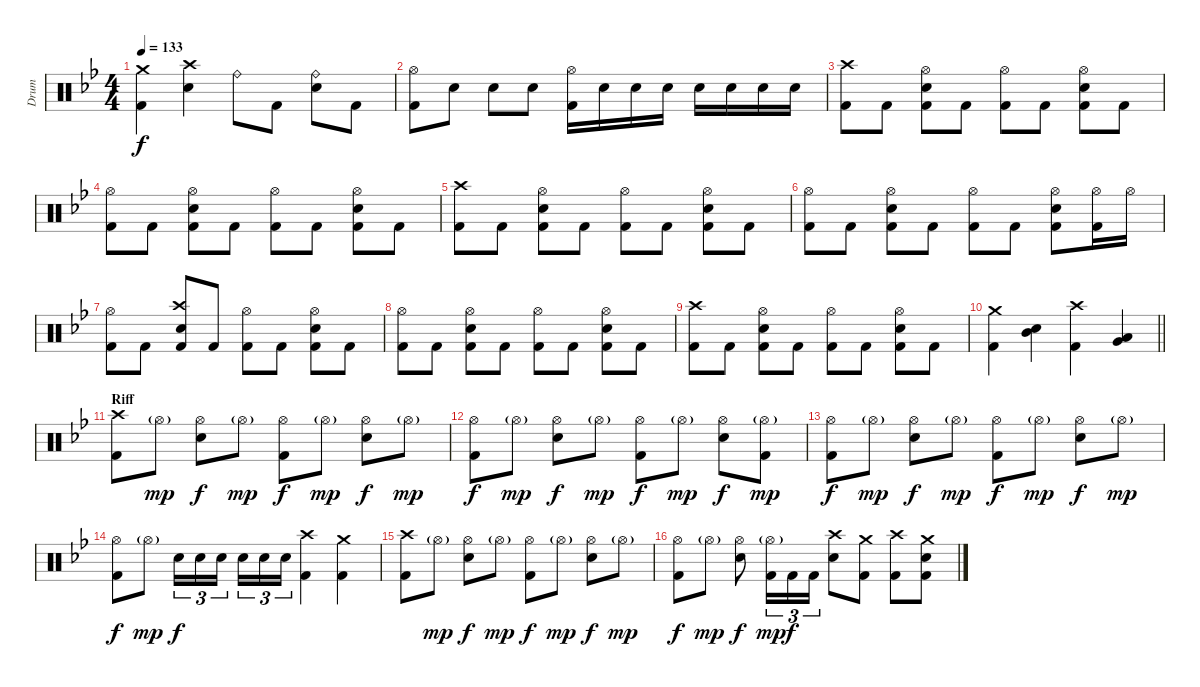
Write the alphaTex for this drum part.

\track ("Drum" "Drum") {instrument percussion}
\staff {score}
\articulation defaults
\ts (4 4)
\tempo 133
\clef neutral
\ks bb
("Crash medium (hit)" "Kick (hit) 2").4{dy f} ("Crash high (hit)" "Snare (hit) 2").4 "Ride (bell)".8 "Kick (hit) 2".8 ("Ride (bell)" "Snare (hit) 2").8 "Kick (hit) 2".8 |
("Hi-Hat (open)" "Kick (hit) 2").8 "Snare (hit) 2".8 "Snare (hit) 2".8 "Snare (hit) 2".8 ("Hi-Hat (open)" "Kick (hit) 2").16 "Snare (hit) 2".16 "Snare (hit) 2".16 "Snare (hit) 2".16 "Snare (hit) 2".16 "Snare (hit) 2".16 "Snare (hit) 2".16 "Snare (hit) 2".16 |
("Crash high (hit)" "Kick (hit) 2").8 "Kick (hit) 2".8 ("Hi-Hat (open)" "Snare (hit) 2" "Kick (hit) 2").8 "Kick (hit) 2".8 ("Hi-Hat (open)" "Kick (hit) 2").8 "Kick (hit) 2".8 ("Hi-Hat (open)" "Snare (hit) 2" "Kick (hit) 2").8 "Kick (hit) 2".8 |
("Hi-Hat (open)" "Kick (hit) 2").8 "Kick (hit) 2".8 ("Hi-Hat (open)" "Snare (hit) 2" "Kick (hit) 2").8 "Kick (hit) 2".8 ("Hi-Hat (open)" "Kick (hit) 2").8 "Kick (hit) 2".8 ("Hi-Hat (open)" "Snare (hit) 2" "Kick (hit) 2").8 "Kick (hit) 2".8 |
("Crash high (hit)" "Kick (hit) 2").8 "Kick (hit) 2".8 ("Hi-Hat (open)" "Snare (hit) 2" "Kick (hit) 2").8 "Kick (hit) 2".8 ("Hi-Hat (open)" "Kick (hit) 2").8 "Kick (hit) 2".8 ("Hi-Hat (open)" "Snare (hit) 2" "Kick (hit) 2").8 "Kick (hit) 2".8 |
("Hi-Hat (open)" "Kick (hit) 2").8 "Kick (hit) 2".8 ("Hi-Hat (open)" "Snare (hit) 2" "Kick (hit) 2").8 "Kick (hit) 2".8 ("Hi-Hat (open)" "Kick (hit) 2").8 "Kick (hit) 2".8 ("Hi-Hat (open)" "Snare (hit) 2" "Kick (hit) 2").8 ("Hi-Hat (open)" "Kick (hit) 2").16 "Hi-Hat (open)".16 |
("Hi-Hat (open)" "Kick (hit) 2").8 "Kick (hit) 2".8 ("Crash high (hit)" "Snare (hit) 2" "Kick (hit) 2").8 "Kick (hit) 2".8 ("Hi-Hat (open)" "Kick (hit) 2").8 "Kick (hit) 2".8 ("Hi-Hat (open)" "Snare (hit) 2" "Kick (hit) 2").8 "Kick (hit) 2".8 |
("Hi-Hat (open)" "Kick (hit) 2").8 "Kick (hit) 2".8 ("Hi-Hat (open)" "Snare (hit) 2" "Kick (hit) 2").8 "Kick (hit) 2".8 ("Hi-Hat (open)" "Kick (hit) 2").8 "Kick (hit) 2".8 ("Hi-Hat (open)" "Snare (hit) 2" "Kick (hit) 2").8 "Kick (hit) 2".8 |
("Crash high (hit)" "Kick (hit) 2").8 "Kick (hit) 2".8 ("Hi-Hat (open)" "Snare (hit) 2" "Kick (hit) 2").8 "Kick (hit) 2".8 ("Hi-Hat (open)" "Kick (hit) 2").8 "Kick (hit) 2".8 ("Hi-Hat (open)" "Snare (hit) 2" "Kick (hit) 2").8 "Kick (hit) 2".8 |
\barLineRight lightlight
("Crash medium (hit)" "Kick (hit) 2").4 ("Mid Tom (hit)" "Snare (hit)").4 ("Crash high (hit)" "Kick (hit) 2").4 ("Low Tom (hit)" "Very Low Tom (hit)").4 |
\section ("" "Riff")
("Crash high (hit)" "Kick (hit) 2").8 "Hi-Hat (open)"{g}.8{dy mp} ("Hi-Hat (open)" "Snare (hit) 2").8{dy f} "Hi-Hat (open)"{g}.8{dy mp} ("Hi-Hat (open)" "Kick (hit) 2").8{dy f} "Hi-Hat (open)"{g}.8{dy mp} ("Hi-Hat (open)" "Snare (hit) 2").8{dy f} "Hi-Hat (open)"{g}.8{dy mp} |
("Hi-Hat (open)" "Kick (hit) 2").8{dy f} "Hi-Hat (open)"{g}.8{dy mp} ("Hi-Hat (open)" "Snare (hit) 2").8{dy f} "Hi-Hat (open)"{g}.8{dy mp} ("Hi-Hat (open)" "Kick (hit) 2").8{dy f} "Hi-Hat (open)"{g}.8{dy mp} ("Hi-Hat (open)" "Snare (hit) 2").8{dy f} ("Hi-Hat (open)"{g} "Kick (hit) 2").8{dy mp} |
("Hi-Hat (open)" "Kick (hit) 2").8{dy f} "Hi-Hat (open)"{g}.8{dy mp} ("Hi-Hat (open)" "Snare (hit) 2").8{dy f} "Hi-Hat (open)"{g}.8{dy mp} ("Hi-Hat (open)" "Kick (hit) 2").8{dy f} "Hi-Hat (open)"{g}.8{dy mp} ("Hi-Hat (open)" "Snare (hit) 2").8{dy f} "Hi-Hat (open)"{g}.8{dy mp} |
("Hi-Hat (open)" "Kick (hit) 2").8{dy f} "Hi-Hat (open)"{g}.8{dy mp} "Snare (hit) 2".16{tu (3 2) dy f} "Snare (hit) 2".16{tu (3 2)} "Snare (hit) 2".16{tu (3 2) beam splitsecondary} "Snare (hit) 2".16{tu (3 2)} "Snare (hit) 2".16{tu (3 2)} "Snare (hit) 2".16{tu (3 2)} ("Crash high (hit)" "Kick (hit) 2").4 ("Crash medium (hit)" "Kick (hit) 2").4 |
("Crash high (hit)" "Kick (hit) 2").8 "Hi-Hat (open)"{g}.8{dy mp} ("Hi-Hat (open)" "Snare (hit) 2").8{dy f} "Hi-Hat (open)"{g}.8{dy mp} ("Hi-Hat (open)" "Kick (hit) 2").8{dy f} "Hi-Hat (open)"{g}.8{dy mp} ("Hi-Hat (open)" "Snare (hit) 2").8{dy f} "Hi-Hat (open)"{g}.8{dy mp} |
("Hi-Hat (open)" "Kick (hit) 2").8{dy f} "Hi-Hat (open)"{g}.8{dy mp} ("Hi-Hat (open)" "Snare (hit) 2").8{dy f} ("Hi-Hat (open)"{g} "Kick (hit) 2").16{tu (3 2) dy mp} "Kick (hit) 2".16{tu (3 2) dy f} "Kick (hit) 2".16{tu (3 2)} ("Crash high (hit)" "Snare (hit) 2").8 ("Crash medium (hit)" "Kick (hit) 2").8 ("Crash high (hit)" "Kick (hit) 2").8 ("Crash medium (hit)" "Snare (hit) 2" "Kick (hit) 2").8
